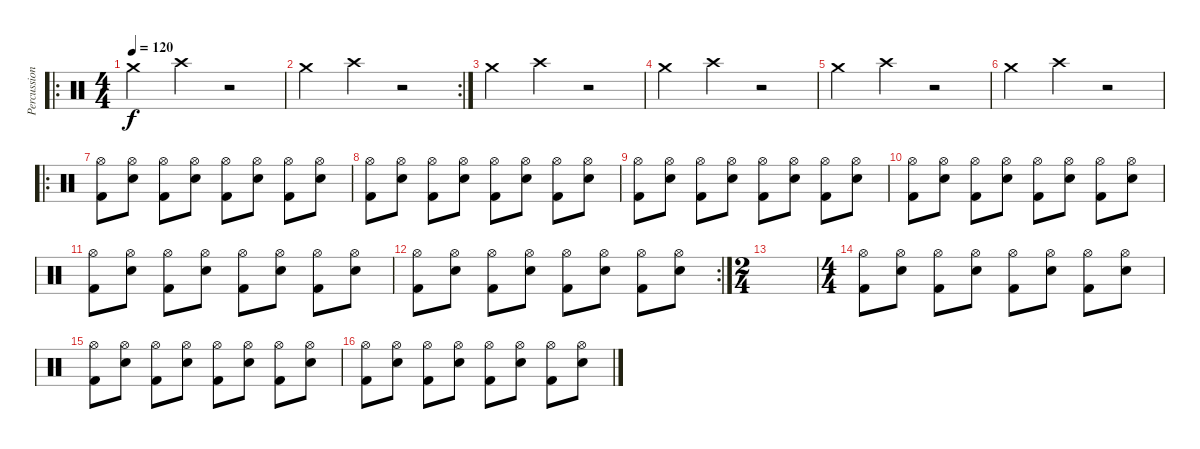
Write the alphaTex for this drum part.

\track ("Percussions" "Percussion") {instrument percussion}
\staff {score}
\articulation defaults
\ro
\ts (4 4)
\tempo 120
\clef neutral
\ks c "Crash medium (hit)".4{dy f} "Crash high (hit)".4
r.2 |
\rc 2 "Crash medium (hit)".4 "Crash high (hit)".4
r.2 |
"Crash medium (hit)".4 "Crash high (hit)".4 r.2 |
"Crash medium (hit)".4 "Crash high (hit)".4 r.2 |
"Crash medium (hit)".4 "Crash high (hit)".4 r.2 |
"Crash medium (hit)".4 "Crash high (hit)".4 r.2 |
\ro
("Hi-Hat (open)" "Kick (hit) 2").8 ("Hi-Hat (open)" "Electric Snare (hit)").8 ("Hi-Hat (open)" "Kick (hit) 2").8 ("Hi-Hat (open)" "Electric Snare (hit)").8 ("Hi-Hat (open)" "Kick (hit) 2").8 ("Hi-Hat (open)" "Electric Snare (hit)").8 ("Hi-Hat (open)" "Kick (hit) 2").8 ("Hi-Hat (open)" "Electric Snare (hit)").8 |
("Hi-Hat (open)" "Kick (hit) 2").8 ("Hi-Hat (open)" "Electric Snare (hit)").8 ("Hi-Hat (open)" "Kick (hit) 2").8 ("Hi-Hat (open)" "Electric Snare (hit)").8 ("Hi-Hat (open)" "Kick (hit) 2").8 ("Hi-Hat (open)" "Electric Snare (hit)").8 ("Hi-Hat (open)" "Kick (hit) 2").8 ("Hi-Hat (open)" "Electric Snare (hit)").8 |
("Hi-Hat (open)" "Kick (hit) 2").8 ("Hi-Hat (open)" "Electric Snare (hit)").8 ("Hi-Hat (open)" "Kick (hit) 2").8 ("Hi-Hat (open)" "Electric Snare (hit)").8 ("Hi-Hat (open)" "Kick (hit) 2").8 ("Hi-Hat (open)" "Electric Snare (hit)").8 ("Hi-Hat (open)" "Kick (hit) 2").8 ("Hi-Hat (open)" "Electric Snare (hit)").8 |
("Hi-Hat (open)" "Kick (hit) 2").8 ("Hi-Hat (open)" "Electric Snare (hit)").8 ("Hi-Hat (open)" "Kick (hit) 2").8 ("Hi-Hat (open)" "Electric Snare (hit)").8 ("Hi-Hat (open)" "Kick (hit) 2").8 ("Hi-Hat (open)" "Electric Snare (hit)").8 ("Hi-Hat (open)" "Kick (hit) 2").8 ("Hi-Hat (open)" "Electric Snare (hit)").8 |
("Hi-Hat (open)" "Kick (hit) 2").8 ("Hi-Hat (open)" "Electric Snare (hit)").8 ("Hi-Hat (open)" "Kick (hit) 2").8 ("Hi-Hat (open)" "Electric Snare (hit)").8 ("Hi-Hat (open)" "Kick (hit) 2").8 ("Hi-Hat (open)" "Electric Snare (hit)").8 ("Hi-Hat (open)" "Kick (hit) 2").8 ("Hi-Hat (open)" "Electric Snare (hit)").8 |
\rc 2
("Hi-Hat (open)" "Kick (hit) 2").8 ("Hi-Hat (open)" "Electric Snare (hit)").8 ("Hi-Hat (open)" "Kick (hit) 2").8 ("Hi-Hat (open)" "Electric Snare (hit)").8 ("Hi-Hat (open)" "Kick (hit) 2").8 ("Hi-Hat (open)" "Electric Snare (hit)").8 ("Hi-Hat (open)" "Kick (hit) 2").8 ("Hi-Hat (open)" "Electric Snare (hit)").8 |
\ts (2 4)
|
\ts (4 4)
("Hi-Hat (open)" "Kick (hit) 2").8 ("Hi-Hat (open)" "Electric Snare (hit)").8 ("Hi-Hat (open)" "Kick (hit) 2").8 ("Hi-Hat (open)" "Electric Snare (hit)").8 ("Hi-Hat (open)" "Kick (hit) 2").8 ("Hi-Hat (open)" "Electric Snare (hit)").8 ("Hi-Hat (open)" "Kick (hit) 2").8 ("Hi-Hat (open)" "Electric Snare (hit)").8 |
("Hi-Hat (open)" "Kick (hit) 2").8 ("Hi-Hat (open)" "Electric Snare (hit)").8 ("Hi-Hat (open)" "Kick (hit) 2").8 ("Hi-Hat (open)" "Electric Snare (hit)").8 ("Hi-Hat (open)" "Kick (hit) 2").8 ("Hi-Hat (open)" "Electric Snare (hit)").8 ("Hi-Hat (open)" "Kick (hit) 2").8 ("Hi-Hat (open)" "Electric Snare (hit)").8 |
("Hi-Hat (open)" "Kick (hit) 2").8 ("Hi-Hat (open)" "Electric Snare (hit)").8 ("Hi-Hat (open)" "Kick (hit) 2").8 ("Hi-Hat (open)" "Electric Snare (hit)").8 ("Hi-Hat (open)" "Kick (hit) 2").8 ("Hi-Hat (open)" "Electric Snare (hit)").8 ("Hi-Hat (open)" "Kick (hit) 2").8 ("Hi-Hat (open)" "Electric Snare (hit)").8
